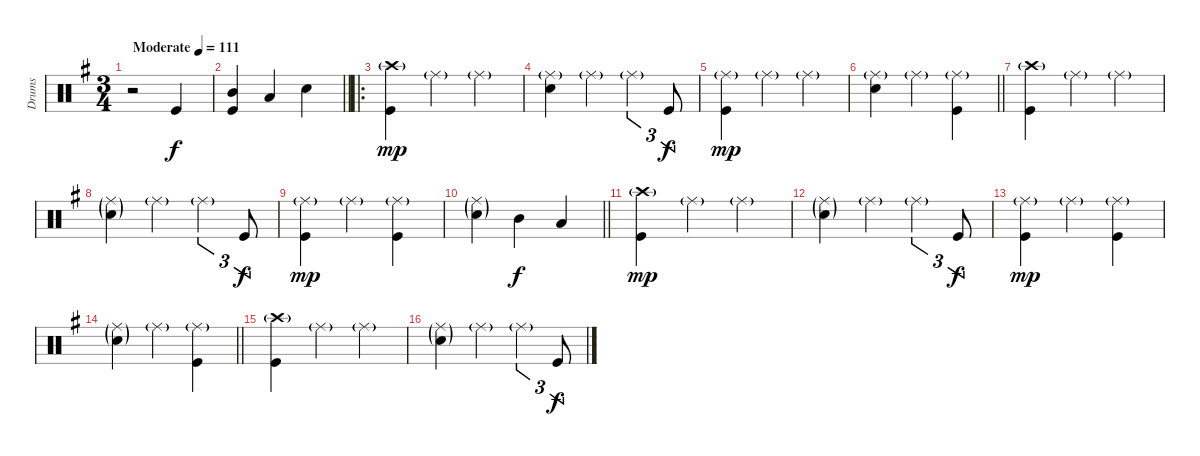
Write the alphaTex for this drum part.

\track ("Drums" "Drums") {instrument percussion}
\staff
\articulation defaults
\ts (3 4)
\tempo (111 "Moderate")
\clef neutral
\ks eminor
r.2{dy f} "Kick (hit)".4 |
\barLineRight lightlight
("Mid Tom (hit)" "Kick (hit)").4 "Low Tom (hit)".4 "Electric Snare (hit)".4 |
\ro
("Crash high (hit)"{g} "Kick (hit)").4{dy mp} "Ride (middle)"{g}.4 "Ride (middle)"{g}.4 |
("Ride (middle)"{g} "Electric Snare (hit)").4 "Ride (middle)"{g}.4 "Ride (middle)"{g}.4{tu (3 2)} "Kick (hit)".8{tu (3 2) dy f} |
("Ride (middle)"{g} "Kick (hit)").4{dy mp} "Ride (middle)"{g}.4 "Ride (middle)"{g}.4 |
\barLineRight lightlight
("Ride (middle)"{g} "Electric Snare (hit)").4 "Ride (middle)"{g}.4 ("Ride (middle)"{g} "Kick (hit)").4 |
("Crash high (hit)"{g} "Kick (hit)").4 "Ride (middle)"{g}.4 "Ride (middle)"{g}.4 |
("Ride (middle)"{g} "Electric Snare (hit)"{g}).4 "Ride (middle)"{g}.4 "Ride (middle)"{g}.4{tu (3 2)} "Kick (hit)".8{tu (3 2) dy f} |
("Ride (middle)"{g} "Kick (hit)").4{dy mp} "Ride (middle)"{g}.4 ("Ride (middle)"{g} "Kick (hit)").4 |
\barLineRight lightlight
("Ride (middle)"{g} "Electric Snare (hit)"{g}).4 "Mid Tom (hit)".4{dy f} "Low Tom (hit)".4 |
("Crash high (hit)"{g} "Kick (hit)").4{dy mp} "Ride (middle)"{g}.4 "Ride (middle)"{g}.4 |
("Ride (middle)"{g} "Electric Snare (hit)"{g}).4 "Ride (middle)"{g}.4 "Ride (middle)"{g}.4{tu (3 2)} "Kick (hit)".8{tu (3 2) dy f} |
("Ride (middle)"{g} "Kick (hit)").4{dy mp} "Ride (middle)"{g}.4 ("Ride (middle)"{g} "Kick (hit)").4 |
\barLineRight lightlight
("Ride (middle)"{g} "Electric Snare (hit)"{g}).4 "Ride (middle)"{g}.4 ("Ride (middle)"{g} "Kick (hit)").4 |
("Crash high (hit)"{g} "Kick (hit)").4 "Ride (middle)"{g}.4 "Ride (middle)"{g}.4 |
("Ride (middle)"{g} "Electric Snare (hit)"{g}).4 "Ride (middle)"{g}.4 "Ride (middle)"{g}.4{tu (3 2)} "Kick (hit)".8{tu (3 2) dy f}
